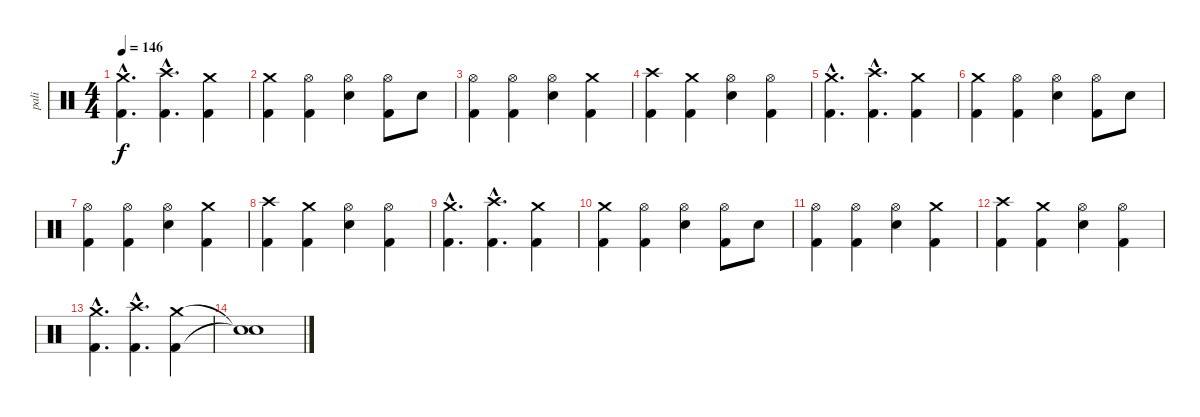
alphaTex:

\track ("pali" "pali") {instrument percussion}
\staff {score}
\articulation defaults
\ts (4 4)
\tempo 146
\clef neutral
\ks c
("Kick (hit) 2"{hac} "Crash medium (hit)"{hac}).4{d dy f} ("Kick (hit) 2"{hac} "Crash high (hit)"{hac}).4{d} ("Kick (hit) 2" "Crash medium (hit)").4 |
("Kick (hit) 2" "Crash medium (hit)").4 ("Kick (hit) 2" "Hi-Hat (open)").4 ("Electric Snare (hit)" "Hi-Hat (open)").4 ("Kick (hit) 2" "Hi-Hat (open)").8 "Electric Snare (hit)".8 |
("Kick (hit) 2" "Hi-Hat (open)").4 ("Kick (hit) 2" "Hi-Hat (open)").4 ("Electric Snare (hit)" "Hi-Hat (open)").4 ("Kick (hit) 2" "Crash medium (hit)").4 |
("Kick (hit) 2" "Crash high (hit)").4 ("Kick (hit) 2" "Crash medium (hit)").4 ("Electric Snare (hit)" "Hi-Hat (open)").4 ("Kick (hit) 2" "Hi-Hat (open)").4 |
("Kick (hit) 2"{hac} "Crash medium (hit)"{hac}).4{d} ("Kick (hit) 2"{hac} "Crash high (hit)"{hac}).4{d} ("Kick (hit) 2" "Crash medium (hit)").4 |
("Kick (hit) 2" "Crash medium (hit)").4 ("Kick (hit) 2" "Hi-Hat (open)").4 ("Electric Snare (hit)" "Hi-Hat (open)").4 ("Kick (hit) 2" "Hi-Hat (open)").8 "Electric Snare (hit)".8 |
("Kick (hit) 2" "Hi-Hat (open)").4 ("Kick (hit) 2" "Hi-Hat (open)").4 ("Electric Snare (hit)" "Hi-Hat (open)").4 ("Kick (hit) 2" "Crash medium (hit)").4 |
("Kick (hit) 2" "Crash high (hit)").4 ("Kick (hit) 2" "Crash medium (hit)").4 ("Electric Snare (hit)" "Hi-Hat (open)").4 ("Kick (hit) 2" "Hi-Hat (open)").4 |
("Kick (hit) 2"{hac} "Crash medium (hit)"{hac}).4{d} ("Kick (hit) 2"{hac} "Crash high (hit)"{hac}).4{d} ("Kick (hit) 2" "Crash medium (hit)").4 |
("Kick (hit) 2" "Crash medium (hit)").4 ("Kick (hit) 2" "Hi-Hat (open)").4 ("Electric Snare (hit)" "Hi-Hat (open)").4 ("Kick (hit) 2" "Hi-Hat (open)").8 "Electric Snare (hit)".8 |
("Kick (hit) 2" "Hi-Hat (open)").4 ("Kick (hit) 2" "Hi-Hat (open)").4 ("Electric Snare (hit)" "Hi-Hat (open)").4 ("Kick (hit) 2" "Crash medium (hit)").4 |
("Kick (hit) 2" "Crash high (hit)").4 ("Kick (hit) 2" "Crash medium (hit)").4 ("Electric Snare (hit)" "Hi-Hat (open)").4 ("Kick (hit) 2" "Hi-Hat (open)").4 |
("Kick (hit) 2"{hac} "Crash medium (hit)"{hac}).4{d} ("Kick (hit) 2"{hac} "Crash high (hit)"{hac}).4{d} ("Kick (hit) 2" "Crash medium (hit)").4 |
("Snare (hit)"{t} "Snare (hit)"{t}).1
